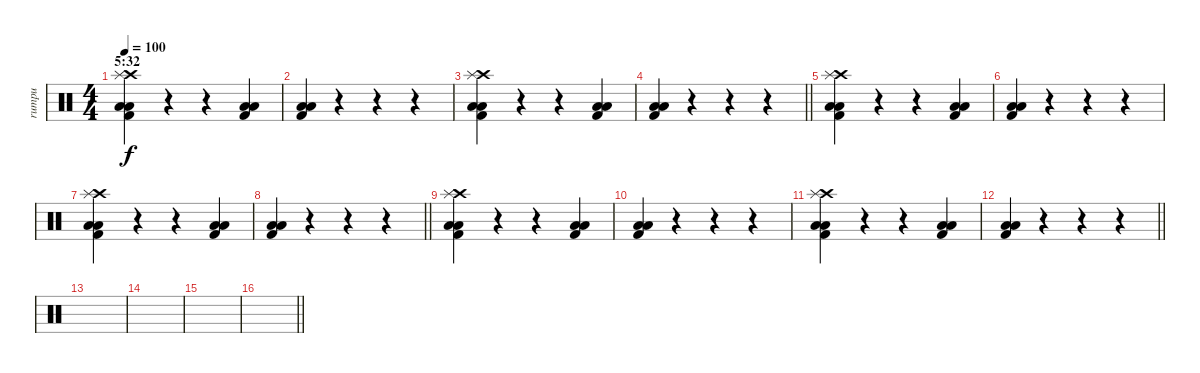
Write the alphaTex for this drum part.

\track ("rumpu" "rumpu") {instrument percussion}
\staff {score}
\articulation defaults
\ts (4 4)
\section ("" "5:32")
\tempo 100
\clef neutral
\ks c
("Kick (hit) 2" "Low Tom (hit)" "Low Floor Tom (hit)" "Crash high (hit)" "Splash (hit)").4{dy f} r.4 r.4 ("Kick (hit) 2" "Low Tom (hit)" "Low Floor Tom (hit)").4 |
("Kick (hit) 2" "Low Tom (hit)" "Low Floor Tom (hit)").4 r.4 r.4 r.4 |
("Kick (hit) 2" "Low Tom (hit)" "Low Floor Tom (hit)" "Crash high (hit)" "Splash (hit)").4 r.4 r.4 ("Kick (hit) 2" "Low Tom (hit)" "Low Floor Tom (hit)").4 |
\barLineRight lightlight
("Kick (hit) 2" "Low Tom (hit)" "Low Floor Tom (hit)").4 r.4 r.4 r.4 |
("Kick (hit) 2" "Low Tom (hit)" "Low Floor Tom (hit)" "Crash high (hit)" "Splash (hit)").4 r.4 r.4 ("Kick (hit) 2" "Low Tom (hit)" "Low Floor Tom (hit)").4 |
("Kick (hit) 2" "Low Tom (hit)" "Low Floor Tom (hit)").4 r.4 r.4 r.4 |
("Kick (hit) 2" "Low Tom (hit)" "Low Floor Tom (hit)" "Crash high (hit)" "Splash (hit)").4 r.4 r.4 ("Kick (hit) 2" "Low Tom (hit)" "Low Floor Tom (hit)").4 |
\barLineRight lightlight
("Kick (hit) 2" "Low Tom (hit)" "Low Floor Tom (hit)").4 r.4 r.4 r.4 |
("Kick (hit) 2" "Low Tom (hit)" "Low Floor Tom (hit)" "Crash high (hit)" "Splash (hit)").4 r.4 r.4 ("Kick (hit) 2" "Low Tom (hit)" "Low Floor Tom (hit)").4 |
("Kick (hit) 2" "Low Tom (hit)" "Low Floor Tom (hit)").4 r.4 r.4 r.4 |
("Kick (hit) 2" "Low Tom (hit)" "Low Floor Tom (hit)" "Crash high (hit)" "Splash (hit)").4 r.4 r.4 ("Kick (hit) 2" "Low Tom (hit)" "Low Floor Tom (hit)").4 |
\barLineRight lightlight
("Kick (hit) 2" "Low Tom (hit)" "Low Floor Tom (hit)").4 r.4 r.4 r.4 |
|
|
|
\barLineRight lightlight
